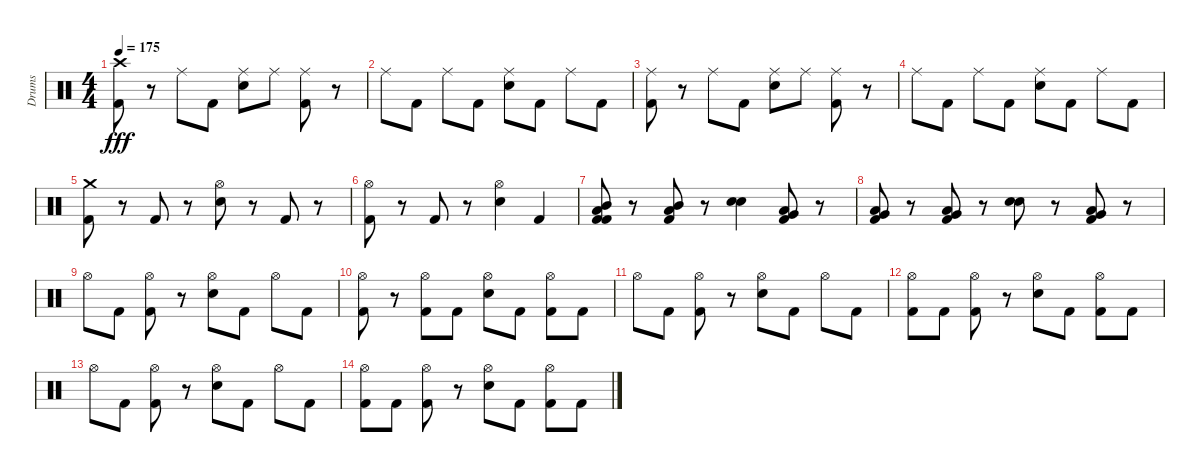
\track ("Drums" "Drums") {instrument percussion}
\staff {score}
\articulation defaults
\ts (4 4)
\tempo 175
\clef neutral
\ks c
("Crash high (hit)" "Kick (hit) 2").8{dy fff} r.8 "Ride (middle)".8 "Kick (hit) 2".8 ("Electric Snare (hit)" "Ride (middle)").8 "Ride (middle)".8 ("Ride (middle)" "Kick (hit) 2").8 r.8 |
"Ride (middle)".8 "Kick (hit) 2".8 "Ride (middle)".8 "Kick (hit) 2".8 ("Ride (middle)" "Electric Snare (hit)").8 "Kick (hit) 2".8 "Ride (middle)".8 "Kick (hit) 2".8 |
("Ride (middle)" "Kick (hit) 2").8 r.8 "Ride (middle)".8 "Kick (hit) 2".8 ("Electric Snare (hit)" "Ride (middle)").8 "Ride (middle)".8 ("Ride (middle)" "Kick (hit) 2").8 r.8 |
"Ride (middle)".8 "Kick (hit) 2".8 "Ride (middle)".8 "Kick (hit) 2".8 ("Ride (middle)" "Electric Snare (hit)").8 "Kick (hit) 2".8 "Ride (middle)".8 "Kick (hit) 2".8 |
("Kick (hit) 2" "Crash medium (hit)").8 r.8 "Kick (hit) 2".8 r.8 ("Hi-Hat (open)" "Electric Snare (hit)").8 r.8 "Kick (hit) 2".8 r.8 |
("Kick (hit) 2" "Hi-Hat (open)").8 r.8 "Kick (hit) 2".8 r.8 ("Electric Snare (hit)" "Hi-Hat (open)").4 "Kick (hit) 2".4 |
("Mid Tom (hit)" "Kick (hit) 2" "Kick (hit) 2" "Low Tom (hit)").8 r.8 ("Mid Tom (hit)" "Kick (hit) 2" "Low Tom (hit)").8 r.8 ("Electric Snare (hit)" "Electric Snare (hit)").4 ("Low Tom (hit)" "Kick (hit) 2" "Very Low Tom (hit)").8 r.8 |
("Low Tom (hit)" "Kick (hit) 2" "Very Low Tom (hit)").8 r.8 ("Very Low Tom (hit)" "Kick (hit) 2" "Low Floor Tom (hit)").8 r.8 ("Electric Snare (hit)" "Electric Snare (hit)").8 r.8 ("Very Low Tom (hit)" "Kick (hit) 2" "Low Floor Tom (hit)").8 r.8 |
"Hi-Hat (open)".8 "Kick (hit) 2".8 ("Kick (hit) 2" "Hi-Hat (open)").8 r.8 ("Electric Snare (hit)" "Hi-Hat (open)").8 "Kick (hit) 2".8 "Hi-Hat (open)".8 "Kick (hit) 2".8 |
("Kick (hit) 2" "Hi-Hat (open)").8 r.8 ("Kick (hit) 2" "Hi-Hat (open)").8 "Kick (hit) 2".8 ("Electric Snare (hit)" "Hi-Hat (open)").8 "Kick (hit) 2".8 ("Kick (hit) 2" "Hi-Hat (open)").8 "Kick (hit) 2".8 |
"Hi-Hat (open)".8 "Kick (hit) 2".8 ("Kick (hit) 2" "Hi-Hat (open)").8 r.8 ("Electric Snare (hit)" "Hi-Hat (open)").8 "Kick (hit) 2".8 "Hi-Hat (open)".8 "Kick (hit) 2".8 |
("Kick (hit) 2" "Hi-Hat (open)").8 "Kick (hit) 2".8 ("Kick (hit) 2" "Hi-Hat (open)").8 r.8 ("Electric Snare (hit)" "Hi-Hat (open)").8 "Kick (hit) 2".8 ("Kick (hit) 2" "Hi-Hat (open)").8 "Kick (hit) 2".8 |
"Hi-Hat (open)".8 "Kick (hit) 2".8 ("Kick (hit) 2" "Hi-Hat (open)").8 r.8 ("Electric Snare (hit)" "Hi-Hat (open)").8 "Kick (hit) 2".8 "Hi-Hat (open)".8 "Kick (hit) 2".8 |
("Kick (hit) 2" "Hi-Hat (open)").8 "Kick (hit) 2".8 ("Kick (hit) 2" "Hi-Hat (open)").8 r.8 ("Electric Snare (hit)" "Hi-Hat (open)").8 "Kick (hit) 2".8 ("Kick (hit) 2" "Hi-Hat (open)").8 "Kick (hit) 2".8
